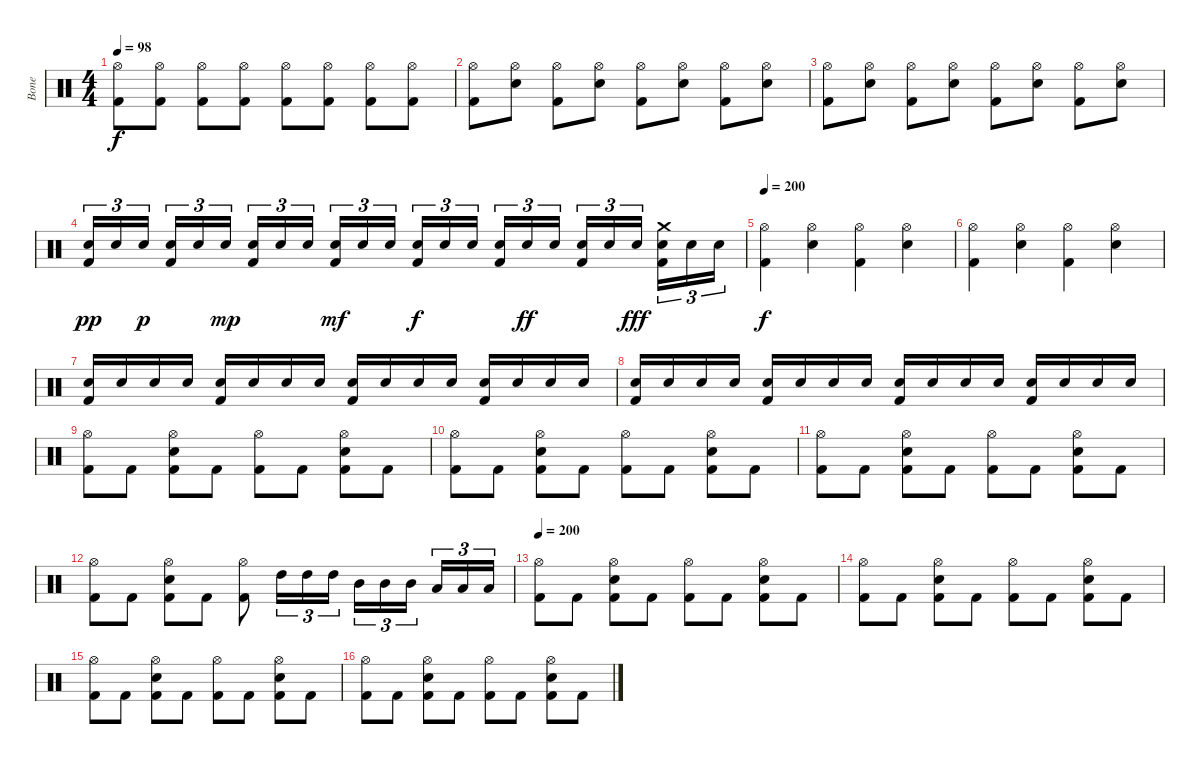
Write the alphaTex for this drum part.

\track ("Bone " "Bone ") {instrument percussion}
\staff {score}
\articulation defaults
\ts (4 4)
\tempo 98
\clef neutral
\ks c
("Hi-Hat (open)" "Kick (hit) 2").8{dy f} ("Hi-Hat (open)" "Kick (hit) 2").8 ("Hi-Hat (open)" "Kick (hit) 2").8 ("Hi-Hat (open)" "Kick (hit) 2").8 ("Hi-Hat (open)" "Kick (hit) 2").8 ("Hi-Hat (open)" "Kick (hit) 2").8 ("Hi-Hat (open)" "Kick (hit) 2").8 ("Hi-Hat (open)" "Kick (hit) 2").8 |
("Hi-Hat (open)" "Kick (hit) 2").8 ("Hi-Hat (open)" "Electric Snare (hit)").8 ("Hi-Hat (open)" "Kick (hit) 2").8 ("Hi-Hat (open)" "Electric Snare (hit)").8 ("Hi-Hat (open)" "Kick (hit) 2").8 ("Hi-Hat (open)" "Electric Snare (hit)").8 ("Hi-Hat (open)" "Kick (hit) 2").8 ("Hi-Hat (open)" "Electric Snare (hit)").8 |
("Hi-Hat (open)" "Kick (hit) 2").8 ("Hi-Hat (open)" "Electric Snare (hit)").8 ("Hi-Hat (open)" "Kick (hit) 2").8 ("Hi-Hat (open)" "Electric Snare (hit)").8 ("Hi-Hat (open)" "Kick (hit) 2").8 ("Hi-Hat (open)" "Electric Snare (hit)").8 ("Hi-Hat (open)" "Kick (hit) 2").8 ("Hi-Hat (open)" "Electric Snare (hit)").8 |
("Electric Snare (hit)" "Kick (hit) 2").16{tu (3 2) dy pp} "Electric Snare (hit)".16{tu (3 2)} "Electric Snare (hit)".16{tu (3 2) dy p beam splitsecondary} ("Electric Snare (hit)" "Kick (hit) 2").16{tu (3 2)} "Electric Snare (hit)".16{tu (3 2)} "Electric Snare (hit)".16{tu (3 2) dy mp} ("Electric Snare (hit)" "Kick (hit) 2").16{tu (3 2)} "Electric Snare (hit)".16{tu (3 2)} "Electric Snare (hit)".16{tu (3 2) beam splitsecondary} ("Electric Snare (hit)" "Kick (hit) 2").16{tu (3 2) dy mf} "Electric Snare (hit)".16{tu (3 2)} "Electric Snare (hit)".16{tu (3 2)} ("Electric Snare (hit)" "Kick (hit) 2").16{tu (3 2) dy f} "Electric Snare (hit)".16{tu (3 2)} "Electric Snare (hit)".16{tu (3 2) beam splitsecondary} ("Electric Snare (hit)" "Kick (hit) 2").16{tu (3 2)} "Electric Snare (hit)".16{tu (3 2) dy ff} "Electric Snare (hit)".16{tu (3 2)} ("Electric Snare (hit)" "Kick (hit) 2").16{tu (3 2)} "Electric Snare (hit)".16{tu (3 2)} "Electric Snare (hit)".16{tu (3 2) dy fff beam splitsecondary} ("Crash medium (hit)" "Electric Snare (hit)" "Kick (hit) 2").16{tu (3 2)} "Electric Snare (hit)".16{tu (3 2)} "Electric Snare (hit)".16{tu (3 2)} |
\tempo 200
("Hi-Hat (open)" "Kick (hit) 2").4{dy f} ("Hi-Hat (open)" "Electric Snare (hit)").4 ("Hi-Hat (open)" "Kick (hit) 2").4 ("Hi-Hat (open)" "Electric Snare (hit)").4 |
("Hi-Hat (open)" "Kick (hit) 2").4 ("Hi-Hat (open)" "Electric Snare (hit)").4 ("Hi-Hat (open)" "Kick (hit) 2").4 ("Hi-Hat (open)" "Electric Snare (hit)").4 |
("Electric Snare (hit)" "Kick (hit) 2").16 "Electric Snare (hit)".16 "Electric Snare (hit)".16 "Electric Snare (hit)".16 ("Electric Snare (hit)" "Kick (hit) 2").16 "Electric Snare (hit)".16 "Electric Snare (hit)".16 "Electric Snare (hit)".16 ("Electric Snare (hit)" "Kick (hit) 2").16 "Electric Snare (hit)".16 "Electric Snare (hit)".16 "Electric Snare (hit)".16 ("Electric Snare (hit)" "Kick (hit) 2").16 "Electric Snare (hit)".16 "Electric Snare (hit)".16 "Electric Snare (hit)".16 |
("Electric Snare (hit)" "Kick (hit) 2").16 "Electric Snare (hit)".16 "Electric Snare (hit)".16 "Electric Snare (hit)".16 ("Electric Snare (hit)" "Kick (hit) 2").16 "Electric Snare (hit)".16 "Electric Snare (hit)".16 "Electric Snare (hit)".16 ("Electric Snare (hit)" "Kick (hit) 2").16 "Electric Snare (hit)".16 "Electric Snare (hit)".16 "Electric Snare (hit)".16 ("Electric Snare (hit)" "Kick (hit) 2").16 "Electric Snare (hit)".16 "Electric Snare (hit)".16 "Electric Snare (hit)".16 |
("Hi-Hat (open)" "Kick (hit) 2").8 "Kick (hit) 2".8 ("Hi-Hat (open)" "Electric Snare (hit)" "Kick (hit) 2").8 "Kick (hit) 2".8 ("Hi-Hat (open)" "Kick (hit) 2").8 "Kick (hit) 2".8 ("Hi-Hat (open)" "Electric Snare (hit)" "Kick (hit) 2").8 "Kick (hit) 2".8 |
("Hi-Hat (open)" "Kick (hit) 2").8 "Kick (hit) 2".8 ("Hi-Hat (open)" "Electric Snare (hit)" "Kick (hit) 2").8 "Kick (hit) 2".8 ("Hi-Hat (open)" "Kick (hit) 2").8 "Kick (hit) 2".8 ("Hi-Hat (open)" "Electric Snare (hit)" "Kick (hit) 2").8 "Kick (hit) 2".8 |
("Hi-Hat (open)" "Kick (hit) 2").8 "Kick (hit) 2".8 ("Hi-Hat (open)" "Electric Snare (hit)" "Kick (hit) 2").8 "Kick (hit) 2".8 ("Hi-Hat (open)" "Kick (hit) 2").8 "Kick (hit) 2".8 ("Hi-Hat (open)" "Electric Snare (hit)" "Kick (hit) 2").8 "Kick (hit) 2".8 |
("Hi-Hat (open)" "Kick (hit) 2").8 "Kick (hit) 2".8 ("Hi-Hat (open)" "Electric Snare (hit)" "Kick (hit) 2").8 "Kick (hit) 2".8 ("Hi-Hat (open)" "Kick (hit) 2").8 "High Tom (hit)".16{tu (3 2)} "High Tom (hit)".16{tu (3 2)} "High Tom (hit)".16{tu (3 2)} "Mid Tom (hit)".16{tu (3 2)} "Mid Tom (hit)".16{tu (3 2)} "Mid Tom (hit)".16{tu (3 2) beam splitsecondary} "Low Tom (hit)".16{tu (3 2)} "Low Tom (hit)".16{tu (3 2)} "Low Tom (hit)".16{tu (3 2)} |
\tempo 200
("Hi-Hat (open)" "Kick (hit) 2").8 "Kick (hit) 2".8 ("Hi-Hat (open)" "Electric Snare (hit)" "Kick (hit) 2").8 "Kick (hit) 2".8 ("Hi-Hat (open)" "Kick (hit) 2").8 "Kick (hit) 2".8 ("Hi-Hat (open)" "Electric Snare (hit)" "Kick (hit) 2").8 "Kick (hit) 2".8 |
("Hi-Hat (open)" "Kick (hit) 2").8 "Kick (hit) 2".8 ("Hi-Hat (open)" "Electric Snare (hit)" "Kick (hit) 2").8 "Kick (hit) 2".8 ("Hi-Hat (open)" "Kick (hit) 2").8 "Kick (hit) 2".8 ("Hi-Hat (open)" "Electric Snare (hit)" "Kick (hit) 2").8 "Kick (hit) 2".8 |
("Hi-Hat (open)" "Kick (hit) 2").8 "Kick (hit) 2".8 ("Hi-Hat (open)" "Electric Snare (hit)" "Kick (hit) 2").8 "Kick (hit) 2".8 ("Hi-Hat (open)" "Kick (hit) 2").8 "Kick (hit) 2".8 ("Hi-Hat (open)" "Electric Snare (hit)" "Kick (hit) 2").8 "Kick (hit) 2".8 |
("Hi-Hat (open)" "Kick (hit) 2").8 "Kick (hit) 2".8 ("Hi-Hat (open)" "Electric Snare (hit)" "Kick (hit) 2").8 "Kick (hit) 2".8 ("Hi-Hat (open)" "Kick (hit) 2").8 "Kick (hit) 2".8 ("Hi-Hat (open)" "Electric Snare (hit)" "Kick (hit) 2").8 "Kick (hit) 2".8
